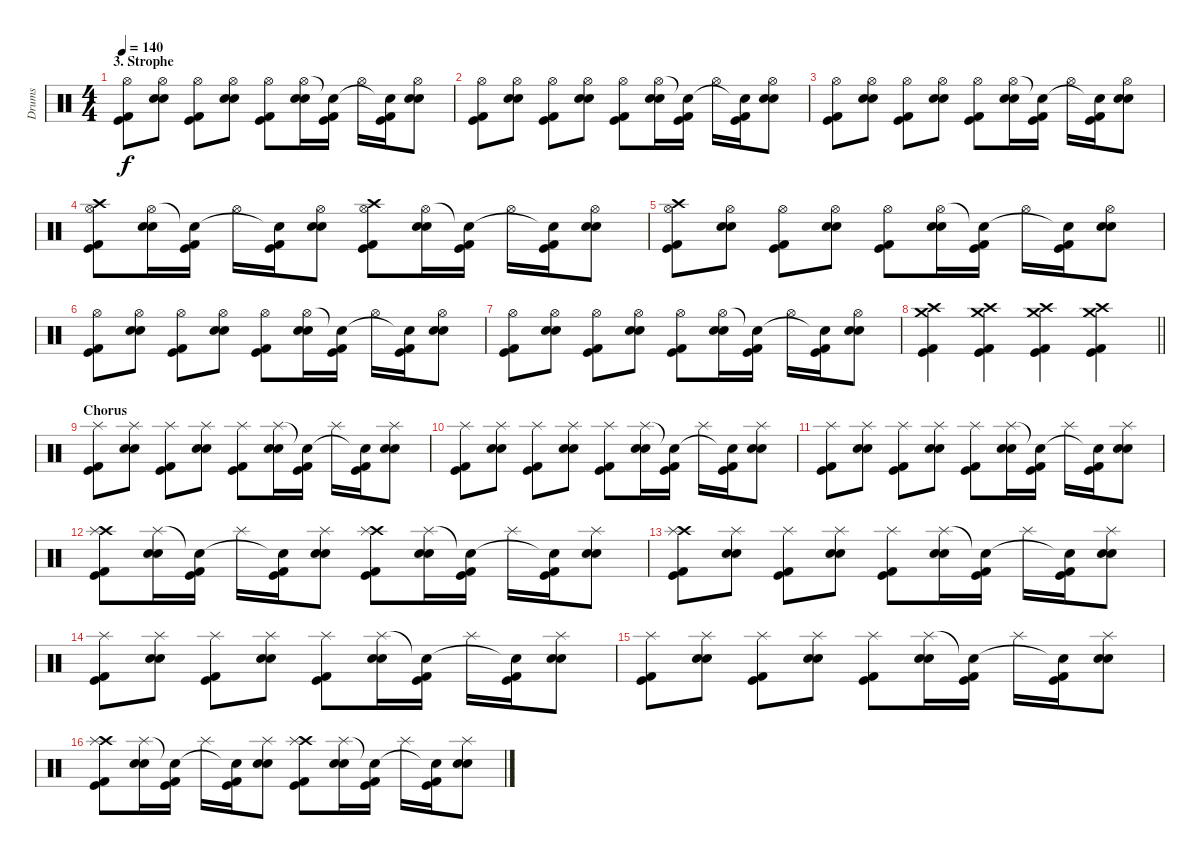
\track ("Drums" "Drums") {instrument percussion}
\staff {score}
\articulation defaults
\ts (4 4)
\section ("" "3. Strophe")
\tempo 140
\clef neutral
\ks c
("Kick (hit) 2" "Hi-Hat (open)" "Kick (hit)").8{dy f} ("Electric Snare (hit)" "Hi-Hat (open)" "Snare (hit) 2").8 ("Kick (hit) 2" "Hi-Hat (open)" "Kick (hit)").8 ("Electric Snare (hit)" "Hi-Hat (open)" "Snare (hit) 2").8 ("Kick (hit) 2" "Hi-Hat (open)" "Kick (hit)").8 ("Electric Snare (hit)" "Hi-Hat (open)" "Snare (hit) 2").16 ("Kick (hit) 2" "Snare (hit)"{t} "Kick (hit)").16 "Hi-Hat (open)".16 ("Kick (hit) 2" "Snare (hit)"{t} "Kick (hit)").16 ("Electric Snare (hit)" "Hi-Hat (open)" "Snare (hit) 2").8 |
("Kick (hit) 2" "Hi-Hat (open)" "Kick (hit)").8 ("Electric Snare (hit)" "Hi-Hat (open)" "Snare (hit) 2").8 ("Kick (hit) 2" "Hi-Hat (open)" "Kick (hit)").8 ("Electric Snare (hit)" "Hi-Hat (open)" "Snare (hit) 2").8 ("Kick (hit) 2" "Hi-Hat (open)" "Kick (hit)").8 ("Electric Snare (hit)" "Hi-Hat (open)" "Snare (hit) 2").16 ("Kick (hit) 2" "Snare (hit)"{t} "Kick (hit)").16 "Hi-Hat (open)".16 ("Kick (hit) 2" "Snare (hit)"{t} "Kick (hit)").16 ("Electric Snare (hit)" "Hi-Hat (open)" "Snare (hit) 2").8 |
("Kick (hit) 2" "Hi-Hat (open)" "Kick (hit)").8 ("Electric Snare (hit)" "Hi-Hat (open)" "Snare (hit) 2").8 ("Kick (hit) 2" "Hi-Hat (open)" "Kick (hit)").8 ("Electric Snare (hit)" "Hi-Hat (open)" "Snare (hit) 2").8 ("Kick (hit) 2" "Hi-Hat (open)" "Kick (hit)").8 ("Electric Snare (hit)" "Hi-Hat (open)" "Snare (hit) 2").16 ("Kick (hit) 2" "Snare (hit)"{t} "Kick (hit)").16 "Hi-Hat (open)".16 ("Kick (hit) 2" "Snare (hit)"{t} "Kick (hit)").16 ("Electric Snare (hit)" "Hi-Hat (open)" "Snare (hit) 2").8 |
("Kick (hit) 2" "Crash high (hit)" "Hi-Hat (open)" "Kick (hit)").8 ("Electric Snare (hit)" "Hi-Hat (open)" "Snare (hit) 2").16 ("Kick (hit) 2" "Snare (hit)"{t} "Kick (hit)").16 "Hi-Hat (open)".16 ("Kick (hit) 2" "Snare (hit)"{t} "Kick (hit)").16 ("Electric Snare (hit)" "Hi-Hat (open)" "Snare (hit) 2").8 ("Kick (hit) 2" "Crash high (hit)" "Hi-Hat (open)" "Kick (hit)").8 ("Electric Snare (hit)" "Hi-Hat (open)" "Snare (hit) 2").16 ("Kick (hit) 2" "Snare (hit)"{t} "Kick (hit)").16 "Hi-Hat (open)".16 ("Kick (hit) 2" "Snare (hit)"{t} "Kick (hit)").16 ("Electric Snare (hit)" "Hi-Hat (open)" "Snare (hit) 2").8 |
("Kick (hit) 2" "Crash high (hit)" "Hi-Hat (open)" "Kick (hit)").8 ("Electric Snare (hit)" "Hi-Hat (open)" "Snare (hit) 2").8 ("Kick (hit) 2" "Hi-Hat (open)" "Kick (hit)").8 ("Electric Snare (hit)" "Hi-Hat (open)" "Snare (hit) 2").8 ("Kick (hit) 2" "Hi-Hat (open)" "Kick (hit)").8 ("Electric Snare (hit)" "Hi-Hat (open)" "Snare (hit) 2").16 ("Kick (hit) 2" "Snare (hit)"{t} "Kick (hit)").16 "Hi-Hat (open)".16 ("Kick (hit) 2" "Snare (hit)"{t} "Kick (hit)").16 ("Electric Snare (hit)" "Hi-Hat (open)" "Snare (hit) 2").8 |
("Kick (hit) 2" "Hi-Hat (open)" "Kick (hit)").8 ("Electric Snare (hit)" "Hi-Hat (open)" "Snare (hit) 2").8 ("Kick (hit) 2" "Hi-Hat (open)" "Kick (hit)").8 ("Electric Snare (hit)" "Hi-Hat (open)" "Snare (hit) 2").8 ("Kick (hit) 2" "Hi-Hat (open)" "Kick (hit)").8 ("Electric Snare (hit)" "Hi-Hat (open)" "Snare (hit) 2").16 ("Kick (hit) 2" "Snare (hit)"{t} "Kick (hit)").16 "Hi-Hat (open)".16 ("Kick (hit) 2" "Snare (hit)"{t} "Kick (hit)").16 ("Electric Snare (hit)" "Hi-Hat (open)" "Snare (hit) 2").8 |
("Kick (hit) 2" "Hi-Hat (open)" "Kick (hit)").8 ("Electric Snare (hit)" "Hi-Hat (open)" "Snare (hit) 2").8 ("Kick (hit) 2" "Hi-Hat (open)" "Kick (hit)").8 ("Electric Snare (hit)" "Hi-Hat (open)" "Snare (hit) 2").8 ("Kick (hit) 2" "Hi-Hat (open)" "Kick (hit)").8 ("Electric Snare (hit)" "Hi-Hat (open)" "Snare (hit) 2").16 ("Kick (hit) 2" "Snare (hit)"{t} "Kick (hit)").16 "Hi-Hat (open)".16 ("Kick (hit) 2" "Snare (hit)"{t} "Kick (hit)").16 ("Electric Snare (hit)" "Hi-Hat (open)" "Snare (hit) 2").8 |
\barLineRight lightlight
("Kick (hit) 2" "Crash medium (hit)" "Crash high (hit)" "Kick (hit)").4 ("Kick (hit) 2" "Crash medium (hit)" "Crash high (hit)" "Kick (hit)").4 ("Kick (hit) 2" "Crash medium (hit)" "Crash high (hit)" "Kick (hit)").4 ("Kick (hit) 2" "Crash medium (hit)" "Crash high (hit)" "Kick (hit)").4 |
\section ("" "Chorus")
("Kick (hit) 2" "Splash (hit)" "Kick (hit)").8 ("Electric Snare (hit)" "Splash (hit)" "Snare (hit) 2").8 ("Kick (hit) 2" "Splash (hit)" "Kick (hit)").8 ("Electric Snare (hit)" "Splash (hit)" "Snare (hit) 2").8 ("Kick (hit) 2" "Splash (hit)" "Kick (hit)").8 ("Electric Snare (hit)" "Splash (hit)" "Snare (hit) 2").16 ("Kick (hit) 2" "Snare (hit)"{t} "Kick (hit)").16 "Splash (hit)".16 ("Kick (hit) 2" "Snare (hit)"{t} "Kick (hit)").16 ("Electric Snare (hit)" "Splash (hit)" "Snare (hit) 2").8 |
("Kick (hit) 2" "Splash (hit)" "Kick (hit)").8 ("Electric Snare (hit)" "Splash (hit)" "Snare (hit) 2").8 ("Kick (hit) 2" "Splash (hit)" "Kick (hit)").8 ("Electric Snare (hit)" "Splash (hit)" "Snare (hit) 2").8 ("Kick (hit) 2" "Splash (hit)" "Kick (hit)").8 ("Electric Snare (hit)" "Splash (hit)" "Snare (hit) 2").16 ("Kick (hit) 2" "Snare (hit)"{t} "Kick (hit)").16 "Splash (hit)".16 ("Kick (hit) 2" "Snare (hit)"{t} "Kick (hit)").16 ("Electric Snare (hit)" "Splash (hit)" "Snare (hit) 2").8 |
("Kick (hit) 2" "Splash (hit)" "Kick (hit)").8 ("Electric Snare (hit)" "Splash (hit)" "Snare (hit) 2").8 ("Kick (hit) 2" "Splash (hit)" "Kick (hit)").8 ("Electric Snare (hit)" "Splash (hit)" "Snare (hit) 2").8 ("Kick (hit) 2" "Splash (hit)" "Kick (hit)").8 ("Electric Snare (hit)" "Splash (hit)" "Snare (hit) 2").16 ("Kick (hit) 2" "Snare (hit)"{t} "Kick (hit)").16 "Splash (hit)".16 ("Kick (hit) 2" "Snare (hit)"{t} "Kick (hit)").16 ("Electric Snare (hit)" "Splash (hit)" "Snare (hit) 2").8 |
("Kick (hit) 2" "Crash high (hit)" "Splash (hit)" "Kick (hit)").8 ("Electric Snare (hit)" "Splash (hit)" "Snare (hit) 2").16 ("Kick (hit) 2" "Snare (hit)"{t} "Kick (hit)").16 "Splash (hit)".16 ("Kick (hit) 2" "Snare (hit)"{t} "Kick (hit)").16 ("Electric Snare (hit)" "Splash (hit)" "Snare (hit) 2").8 ("Kick (hit) 2" "Crash high (hit)" "Splash (hit)" "Kick (hit)").8 ("Electric Snare (hit)" "Splash (hit)" "Snare (hit) 2").16 ("Kick (hit) 2" "Snare (hit)"{t} "Kick (hit)").16 "Splash (hit)".16 ("Kick (hit) 2" "Snare (hit)"{t} "Kick (hit)").16 ("Electric Snare (hit)" "Splash (hit)" "Snare (hit) 2").8 |
("Kick (hit) 2" "Crash high (hit)" "Splash (hit)" "Kick (hit)").8 ("Electric Snare (hit)" "Splash (hit)" "Snare (hit) 2").8 ("Kick (hit) 2" "Splash (hit)" "Kick (hit)").8 ("Electric Snare (hit)" "Splash (hit)" "Snare (hit) 2").8 ("Kick (hit) 2" "Splash (hit)" "Kick (hit)").8 ("Electric Snare (hit)" "Splash (hit)" "Snare (hit) 2").16 ("Kick (hit) 2" "Snare (hit)"{t} "Kick (hit)").16 "Splash (hit)".16 ("Kick (hit) 2" "Snare (hit)"{t} "Kick (hit)").16 ("Electric Snare (hit)" "Splash (hit)" "Snare (hit) 2").8 |
("Kick (hit) 2" "Splash (hit)" "Kick (hit)").8 ("Electric Snare (hit)" "Splash (hit)" "Snare (hit) 2").8 ("Kick (hit) 2" "Splash (hit)" "Kick (hit)").8 ("Electric Snare (hit)" "Splash (hit)" "Snare (hit) 2").8 ("Kick (hit) 2" "Splash (hit)" "Kick (hit)").8 ("Electric Snare (hit)" "Splash (hit)" "Snare (hit) 2").16 ("Kick (hit) 2" "Snare (hit)"{t} "Kick (hit)").16 "Splash (hit)".16 ("Kick (hit) 2" "Snare (hit)"{t} "Kick (hit)").16 ("Electric Snare (hit)" "Splash (hit)" "Snare (hit) 2").8 |
("Kick (hit) 2" "Splash (hit)" "Kick (hit)").8 ("Electric Snare (hit)" "Splash (hit)" "Snare (hit) 2").8 ("Kick (hit) 2" "Splash (hit)" "Kick (hit)").8 ("Electric Snare (hit)" "Splash (hit)" "Snare (hit) 2").8 ("Kick (hit) 2" "Splash (hit)" "Kick (hit)").8 ("Electric Snare (hit)" "Splash (hit)" "Snare (hit) 2").16 ("Kick (hit) 2" "Snare (hit)"{t} "Kick (hit)").16 "Splash (hit)".16 ("Kick (hit) 2" "Snare (hit)"{t} "Kick (hit)").16 ("Electric Snare (hit)" "Splash (hit)" "Snare (hit) 2").8 |
("Kick (hit) 2" "Crash high (hit)" "Splash (hit)" "Kick (hit)").8 ("Electric Snare (hit)" "Splash (hit)" "Snare (hit) 2").16 ("Kick (hit) 2" "Snare (hit)"{t} "Kick (hit)").16 "Splash (hit)".16 ("Kick (hit) 2" "Snare (hit)"{t} "Kick (hit)").16 ("Electric Snare (hit)" "Splash (hit)" "Snare (hit) 2").8 ("Kick (hit) 2" "Crash high (hit)" "Splash (hit)" "Kick (hit)").8 ("Electric Snare (hit)" "Splash (hit)" "Snare (hit) 2").16 ("Kick (hit) 2" "Snare (hit)"{t} "Kick (hit)").16 "Splash (hit)".16 ("Kick (hit) 2" "Snare (hit)"{t} "Kick (hit)").16 ("Electric Snare (hit)" "Splash (hit)" "Snare (hit) 2").8
